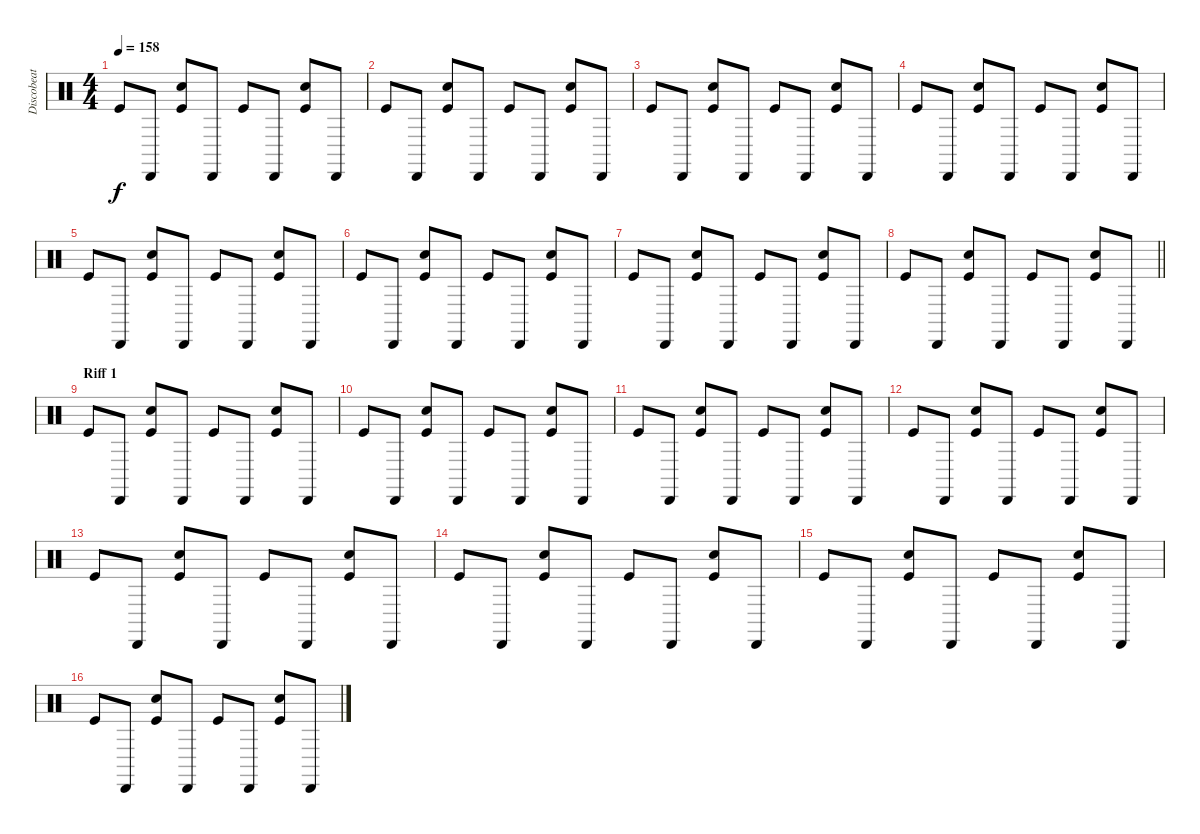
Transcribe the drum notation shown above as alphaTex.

\track ("Discobeat" "Discobeat") {instrument percussion}
\staff {score}
\articulation defaults
\ts (4 4)
\tempo 158
\clef neutral
\ks c "Kick (hit)".8{dy f} "Cabasa (hit)".8
("Kick (hit)" "Electric Snare (hit)").8 "Cabasa (hit)".8 "Kick (hit)".8 "Cabasa (hit)".8 ("Kick (hit)" "Electric Snare (hit)").8 "Cabasa (hit)".8 |
"Kick (hit)".8 "Cabasa (hit)".8 ("Kick (hit)" "Electric Snare (hit)").8 "Cabasa (hit)".8 "Kick (hit)".8 "Cabasa (hit)".8 ("Kick (hit)" "Electric Snare (hit)").8 "Cabasa (hit)".8 |
"Kick (hit)".8 "Cabasa (hit)".8 ("Kick (hit)" "Electric Snare (hit)").8 "Cabasa (hit)".8 "Kick (hit)".8 "Cabasa (hit)".8 ("Kick (hit)" "Electric Snare (hit)").8 "Cabasa (hit)".8 |
"Kick (hit)".8 "Cabasa (hit)".8 ("Kick (hit)" "Electric Snare (hit)").8 "Cabasa (hit)".8 "Kick (hit)".8 "Cabasa (hit)".8 ("Kick (hit)" "Electric Snare (hit)").8 "Cabasa (hit)".8 |
"Kick (hit)".8 "Cabasa (hit)".8 ("Kick (hit)" "Electric Snare (hit)").8 "Cabasa (hit)".8 "Kick (hit)".8 "Cabasa (hit)".8 ("Kick (hit)" "Electric Snare (hit)").8 "Cabasa (hit)".8 |
"Kick (hit)".8 "Cabasa (hit)".8 ("Kick (hit)" "Electric Snare (hit)").8 "Cabasa (hit)".8 "Kick (hit)".8 "Cabasa (hit)".8 ("Kick (hit)" "Electric Snare (hit)").8 "Cabasa (hit)".8 |
"Kick (hit)".8 "Cabasa (hit)".8 ("Kick (hit)" "Electric Snare (hit)").8 "Cabasa (hit)".8 "Kick (hit)".8 "Cabasa (hit)".8 ("Kick (hit)" "Electric Snare (hit)").8 "Cabasa (hit)".8 |
\barLineRight lightlight "Kick (hit)".8 "Cabasa (hit)".8
("Kick (hit)" "Electric Snare (hit)").8 "Cabasa (hit)".8 "Kick (hit)".8 "Cabasa (hit)".8 ("Kick (hit)" "Electric Snare (hit)").8 "Cabasa (hit)".8 |
\section ("" "Riff 1")
"Kick (hit)".8 "Cabasa (hit)".8 ("Kick (hit)" "Electric Snare (hit)").8 "Cabasa (hit)".8 "Kick (hit)".8 "Cabasa (hit)".8 ("Kick (hit)" "Electric Snare (hit)").8 "Cabasa (hit)".8 |
"Kick (hit)".8 "Cabasa (hit)".8 ("Kick (hit)" "Electric Snare (hit)").8 "Cabasa (hit)".8 "Kick (hit)".8 "Cabasa (hit)".8 ("Kick (hit)" "Electric Snare (hit)").8 "Cabasa (hit)".8 |
"Kick (hit)".8 "Cabasa (hit)".8 ("Kick (hit)" "Electric Snare (hit)").8 "Cabasa (hit)".8 "Kick (hit)".8 "Cabasa (hit)".8 ("Kick (hit)" "Electric Snare (hit)").8 "Cabasa (hit)".8 |
"Kick (hit)".8 "Cabasa (hit)".8 ("Kick (hit)" "Electric Snare (hit)").8 "Cabasa (hit)".8 "Kick (hit)".8 "Cabasa (hit)".8 ("Kick (hit)" "Electric Snare (hit)").8 "Cabasa (hit)".8 |
"Kick (hit)".8 "Cabasa (hit)".8 ("Kick (hit)" "Electric Snare (hit)").8 "Cabasa (hit)".8 "Kick (hit)".8 "Cabasa (hit)".8 ("Kick (hit)" "Electric Snare (hit)").8 "Cabasa (hit)".8 |
"Kick (hit)".8 "Cabasa (hit)".8 ("Kick (hit)" "Electric Snare (hit)").8 "Cabasa (hit)".8 "Kick (hit)".8 "Cabasa (hit)".8 ("Kick (hit)" "Electric Snare (hit)").8 "Cabasa (hit)".8 |
"Kick (hit)".8 "Cabasa (hit)".8 ("Kick (hit)" "Electric Snare (hit)").8 "Cabasa (hit)".8 "Kick (hit)".8 "Cabasa (hit)".8 ("Kick (hit)" "Electric Snare (hit)").8 "Cabasa (hit)".8 |
"Kick (hit)".8 "Cabasa (hit)".8 ("Kick (hit)" "Electric Snare (hit)").8 "Cabasa (hit)".8 "Kick (hit)".8 "Cabasa (hit)".8 ("Kick (hit)" "Electric Snare (hit)").8 "Cabasa (hit)".8
